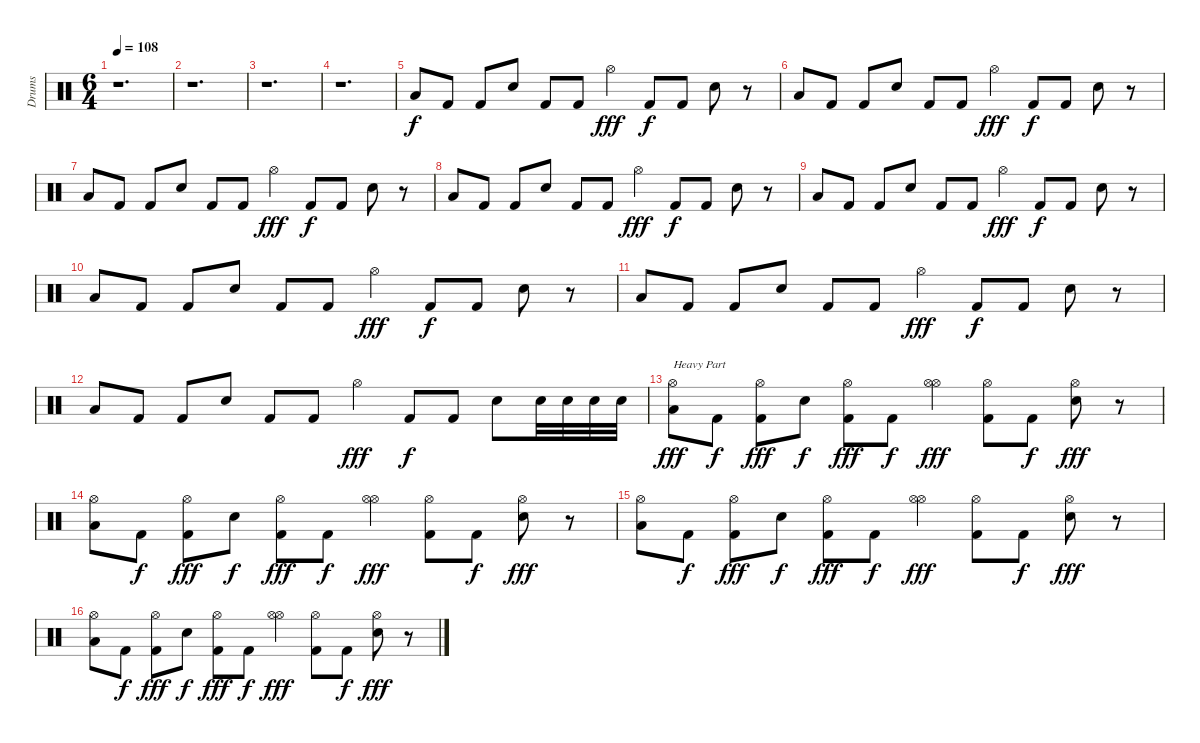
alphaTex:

\track ("Drums" "Drums") {instrument percussion}
\staff {score}
\articulation defaults
\ts (6 4)
\tempo 108
\clef neutral
\ks c
r.1{d dy mp} |
r.1{d} |
r.1{d} |
r.1{d} |
"Low Tom (hit)".8{dy f} "Kick (hit) 2".8 "Kick (hit) 2".8 "Snare (hit) 2".8 "Kick (hit) 2".8 "Kick (hit) 2".8 "Hi-Hat (open)".4{dy fff} "Kick (hit) 2".8{dy f} "Kick (hit) 2".8 "Snare (hit) 2".8 r.8 |
"Low Tom (hit)".8 "Kick (hit) 2".8 "Kick (hit) 2".8 "Snare (hit) 2".8 "Kick (hit) 2".8 "Kick (hit) 2".8 "Hi-Hat (open)".4{dy fff} "Kick (hit) 2".8{dy f} "Kick (hit) 2".8 "Snare (hit) 2".8 r.8 |
"Low Tom (hit)".8 "Kick (hit) 2".8 "Kick (hit) 2".8 "Snare (hit) 2".8 "Kick (hit) 2".8 "Kick (hit) 2".8 "Hi-Hat (open)".4{dy fff} "Kick (hit) 2".8{dy f} "Kick (hit) 2".8 "Snare (hit) 2".8 r.8 |
"Low Tom (hit)".8 "Kick (hit) 2".8 "Kick (hit) 2".8 "Snare (hit) 2".8 "Kick (hit) 2".8 "Kick (hit) 2".8 "Hi-Hat (open)".4{dy fff} "Kick (hit) 2".8{dy f} "Kick (hit) 2".8 "Snare (hit) 2".8 r.8 |
"Low Tom (hit)".8 "Kick (hit) 2".8 "Kick (hit) 2".8 "Snare (hit) 2".8 "Kick (hit) 2".8 "Kick (hit) 2".8 "Hi-Hat (open)".4{dy fff} "Kick (hit) 2".8{dy f} "Kick (hit) 2".8 "Snare (hit) 2".8 r.8 |
"Low Tom (hit)".8 "Kick (hit) 2".8 "Kick (hit) 2".8 "Snare (hit) 2".8 "Kick (hit) 2".8 "Kick (hit) 2".8 "Hi-Hat (open)".4{dy fff} "Kick (hit) 2".8{dy f} "Kick (hit) 2".8 "Snare (hit) 2".8 r.8 |
"Low Tom (hit)".8 "Kick (hit) 2".8 "Kick (hit) 2".8 "Snare (hit) 2".8 "Kick (hit) 2".8 "Kick (hit) 2".8 "Hi-Hat (open)".4{dy fff} "Kick (hit) 2".8{dy f} "Kick (hit) 2".8 "Snare (hit) 2".8 r.8 |
"Low Tom (hit)".8 "Kick (hit) 2".8 "Kick (hit) 2".8 "Snare (hit) 2".8 "Kick (hit) 2".8 "Kick (hit) 2".8 "Hi-Hat (open)".4{dy fff} "Kick (hit) 2".8{dy f} "Kick (hit) 2".8 "Snare (hit) 2".8 "Snare (hit) 2".32 "Snare (hit) 2".32 "Snare (hit) 2".32 "Snare (hit) 2".32 |
("Hi-Hat (open)" "Low Tom (hit)").8{txt "Heavy Part" dy fff} "Kick (hit) 2".8{dy f} ("Hi-Hat (open)" "Kick (hit) 2").8{dy fff} "Snare (hit) 2".8{dy f} ("Hi-Hat (open)" "Kick (hit) 2").8{dy fff} "Kick (hit) 2".8{dy f} ("Hi-Hat (open)" "Hi-Hat (open)").4{dy fff} ("Hi-Hat (open)" "Kick (hit) 2").8 "Kick (hit) 2".8{dy f} ("Hi-Hat (open)" "Snare (hit) 2").8{dy fff} r.8 |
("Hi-Hat (open)" "Low Tom (hit)").8 "Kick (hit) 2".8{dy f} ("Hi-Hat (open)" "Kick (hit) 2").8{dy fff} "Snare (hit) 2".8{dy f} ("Hi-Hat (open)" "Kick (hit) 2").8{dy fff} "Kick (hit) 2".8{dy f} ("Hi-Hat (open)" "Hi-Hat (open)").4{dy fff} ("Hi-Hat (open)" "Kick (hit) 2").8 "Kick (hit) 2".8{dy f} ("Hi-Hat (open)" "Snare (hit) 2").8{dy fff} r.8 |
("Hi-Hat (open)" "Low Tom (hit)").8 "Kick (hit) 2".8{dy f} ("Hi-Hat (open)" "Kick (hit) 2").8{dy fff} "Snare (hit) 2".8{dy f} ("Hi-Hat (open)" "Kick (hit) 2").8{dy fff} "Kick (hit) 2".8{dy f} ("Hi-Hat (open)" "Hi-Hat (open)").4{dy fff} ("Hi-Hat (open)" "Kick (hit) 2").8 "Kick (hit) 2".8{dy f} ("Hi-Hat (open)" "Snare (hit) 2").8{dy fff} r.8 |
("Hi-Hat (open)" "Low Tom (hit)").8 "Kick (hit) 2".8{dy f} ("Hi-Hat (open)" "Kick (hit) 2").8{dy fff} "Snare (hit) 2".8{dy f} ("Hi-Hat (open)" "Kick (hit) 2").8{dy fff} "Kick (hit) 2".8{dy f} ("Hi-Hat (open)" "Hi-Hat (open)").4{dy fff} ("Hi-Hat (open)" "Kick (hit) 2").8 "Kick (hit) 2".8{dy f} ("Hi-Hat (open)" "Snare (hit) 2").8{dy fff} r.8
